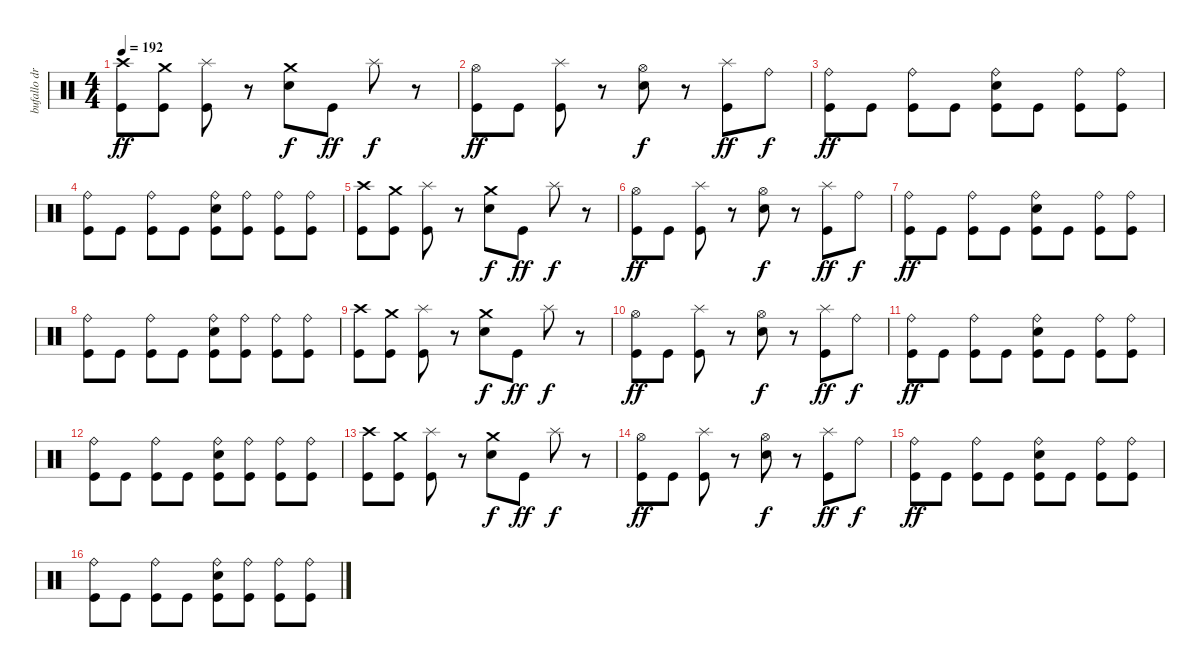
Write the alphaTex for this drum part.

\track ("bufallo drums" "bufallo dr") {instrument percussion}
\staff {score}
\articulation defaults
\ts (4 4)
\tempo 192
\clef neutral
\ks c
("Crash high (hit)" "Kick (hit)").8{dy ff} ("Crash medium (hit)" "Kick (hit)").8 ("Splash (hit)" "Kick (hit)").8 r.8 ("Crash medium (hit)" "Electric Snare (hit)").8{dy f} "Kick (hit)".8{dy ff} "Splash (hit)".8{dy f} r.8 |
("Hi-Hat (open)" "Kick (hit)").8{dy ff} "Kick (hit)".8 ("Splash (hit)" "Kick (hit)").8 r.8 ("Hi-Hat (open)" "Electric Snare (hit)").8{dy f} r.8 ("Splash (hit)" "Kick (hit)").8{dy ff} "Ride (bell)".8{dy f} |
("Ride (bell)" "Kick (hit)").8{dy ff} "Kick (hit)".8 ("Ride (bell)" "Kick (hit)").8 "Kick (hit)".8 ("Ride (bell)" "Electric Snare (hit)" "Kick (hit)").8 "Kick (hit)".8 ("Ride (bell)" "Kick (hit)").8 ("Ride (bell)" "Kick (hit)").8 |
("Ride (bell)" "Kick (hit)").8 "Kick (hit)".8 ("Ride (bell)" "Kick (hit)").8 "Kick (hit)".8 ("Ride (bell)" "Electric Snare (hit)" "Kick (hit)").8 ("Ride (bell)" "Kick (hit)").8 ("Ride (bell)" "Kick (hit)").8 ("Ride (bell)" "Kick (hit)").8 |
("Crash high (hit)" "Kick (hit)").8 ("Crash medium (hit)" "Kick (hit)").8 ("Splash (hit)" "Kick (hit)").8 r.8 ("Crash medium (hit)" "Electric Snare (hit)").8{dy f} "Kick (hit)".8{dy ff} "Splash (hit)".8{dy f} r.8 |
("Hi-Hat (open)" "Kick (hit)").8{dy ff} "Kick (hit)".8 ("Splash (hit)" "Kick (hit)").8 r.8 ("Hi-Hat (open)" "Electric Snare (hit)").8{dy f} r.8 ("Splash (hit)" "Kick (hit)").8{dy ff} "Ride (bell)".8{dy f} |
("Ride (bell)" "Kick (hit)").8{dy ff} "Kick (hit)".8 ("Ride (bell)" "Kick (hit)").8 "Kick (hit)".8 ("Ride (bell)" "Electric Snare (hit)" "Kick (hit)").8 "Kick (hit)".8 ("Ride (bell)" "Kick (hit)").8 ("Ride (bell)" "Kick (hit)").8 |
("Ride (bell)" "Kick (hit)").8 "Kick (hit)".8 ("Ride (bell)" "Kick (hit)").8 "Kick (hit)".8 ("Ride (bell)" "Electric Snare (hit)" "Kick (hit)").8 ("Ride (bell)" "Kick (hit)").8 ("Ride (bell)" "Kick (hit)").8 ("Ride (bell)" "Kick (hit)").8 |
("Crash high (hit)" "Kick (hit)").8 ("Crash medium (hit)" "Kick (hit)").8 ("Splash (hit)" "Kick (hit)").8 r.8 ("Crash medium (hit)" "Electric Snare (hit)").8{dy f} "Kick (hit)".8{dy ff} "Splash (hit)".8{dy f} r.8 |
("Hi-Hat (open)" "Kick (hit)").8{dy ff} "Kick (hit)".8 ("Splash (hit)" "Kick (hit)").8 r.8 ("Hi-Hat (open)" "Electric Snare (hit)").8{dy f} r.8 ("Splash (hit)" "Kick (hit)").8{dy ff} "Ride (bell)".8{dy f} |
("Ride (bell)" "Kick (hit)").8{dy ff} "Kick (hit)".8 ("Ride (bell)" "Kick (hit)").8 "Kick (hit)".8 ("Ride (bell)" "Electric Snare (hit)" "Kick (hit)").8 "Kick (hit)".8 ("Ride (bell)" "Kick (hit)").8 ("Ride (bell)" "Kick (hit)").8 |
("Ride (bell)" "Kick (hit)").8 "Kick (hit)".8 ("Ride (bell)" "Kick (hit)").8 "Kick (hit)".8 ("Ride (bell)" "Electric Snare (hit)" "Kick (hit)").8 ("Ride (bell)" "Kick (hit)").8 ("Ride (bell)" "Kick (hit)").8 ("Ride (bell)" "Kick (hit)").8 |
("Crash high (hit)" "Kick (hit)").8 ("Crash medium (hit)" "Kick (hit)").8 ("Splash (hit)" "Kick (hit)").8 r.8 ("Crash medium (hit)" "Electric Snare (hit)").8{dy f} "Kick (hit)".8{dy ff} "Splash (hit)".8{dy f} r.8 |
("Hi-Hat (open)" "Kick (hit)").8{dy ff} "Kick (hit)".8 ("Splash (hit)" "Kick (hit)").8 r.8 ("Hi-Hat (open)" "Electric Snare (hit)").8{dy f} r.8 ("Splash (hit)" "Kick (hit)").8{dy ff} "Ride (bell)".8{dy f} |
("Ride (bell)" "Kick (hit)").8{dy ff} "Kick (hit)".8 ("Ride (bell)" "Kick (hit)").8 "Kick (hit)".8 ("Ride (bell)" "Electric Snare (hit)" "Kick (hit)").8 "Kick (hit)".8 ("Ride (bell)" "Kick (hit)").8 ("Ride (bell)" "Kick (hit)").8 |
("Ride (bell)" "Kick (hit)").8 "Kick (hit)".8 ("Ride (bell)" "Kick (hit)").8 "Kick (hit)".8 ("Ride (bell)" "Electric Snare (hit)" "Kick (hit)").8 ("Ride (bell)" "Kick (hit)").8 ("Ride (bell)" "Kick (hit)").8 ("Ride (bell)" "Kick (hit)").8
